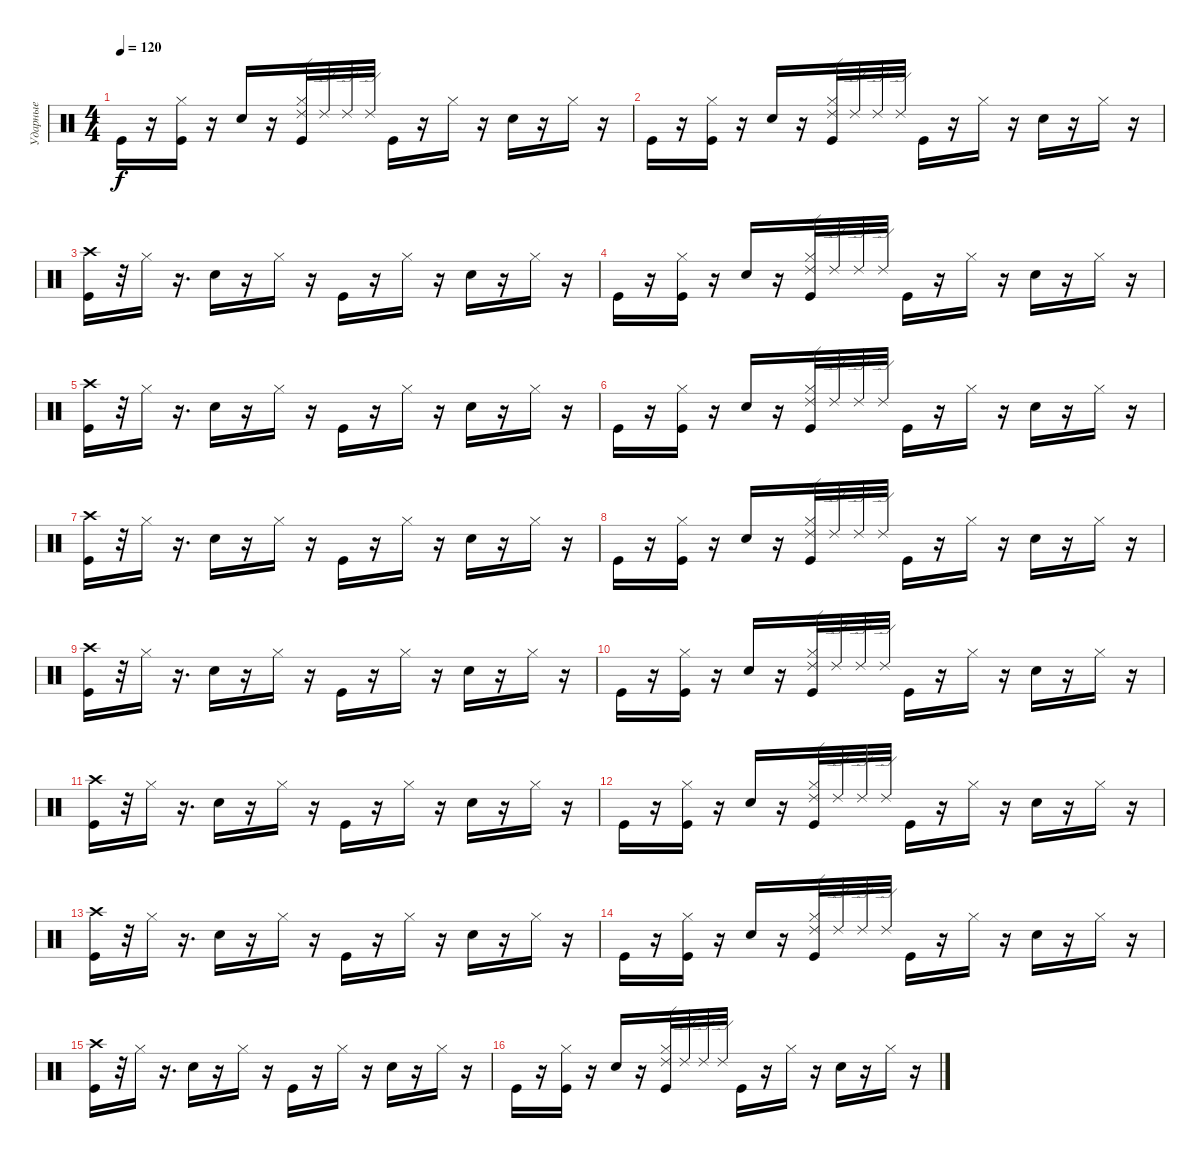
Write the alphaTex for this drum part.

\track ("Ударные" "Ударные") {instrument percussion}
\staff {score}
\articulation defaults
\ts (4 4)
\tempo 120
\clef neutral
\ks c "Kick (hit)".16{dy f}
r.16 ("Hi-Hat (closed)" "Kick (hit)").16 r.16 "Electric Snare (hit)".16 r.16 ("Hi-Hat (closed)" "Kick (hit)" "Ride (edge) 2").32 "Ride (edge) 2".32 "Ride (edge) 2".32 "Ride (edge) 2".32 "Kick (hit)".16 r.16 "Hi-Hat (closed)".16 r.16 "Electric Snare (hit)".16 r.16 "Hi-Hat (closed)".16 r.16 |
"Kick (hit)".16 r.16 ("Hi-Hat (closed)" "Kick (hit)").16 r.16 "Electric Snare (hit)".16 r.16 ("Hi-Hat (closed)" "Kick (hit)" "Ride (edge) 2").32 "Ride (edge) 2".32 "Ride (edge) 2".32 "Ride (edge) 2".32 "Kick (hit)".16 r.16 "Hi-Hat (closed)".16 r.16 "Electric Snare (hit)".16 r.16 "Hi-Hat (closed)".16 r.16 |
("Crash high (hit)" "Kick (hit)").16 r.32 "Hi-Hat (closed)".16 r.16{d} "Electric Snare (hit)".16 r.16 "Hi-Hat (closed)".16 r.16 "Kick (hit)".16 r.16 "Hi-Hat (closed)".16 r.16 "Electric Snare (hit)".16 r.16 "Hi-Hat (closed)".16 r.16 |
"Kick (hit)".16 r.16 ("Hi-Hat (closed)" "Kick (hit)").16 r.16 "Electric Snare (hit)".16 r.16 ("Hi-Hat (closed)" "Kick (hit)" "Ride (edge) 2").32 "Ride (edge) 2".32 "Ride (edge) 2".32 "Ride (edge) 2".32 "Kick (hit)".16 r.16 "Hi-Hat (closed)".16 r.16 "Electric Snare (hit)".16 r.16 "Hi-Hat (closed)".16 r.16 |
("Crash high (hit)" "Kick (hit)").16 r.32 "Hi-Hat (closed)".16 r.16{d} "Electric Snare (hit)".16 r.16 "Hi-Hat (closed)".16 r.16 "Kick (hit)".16 r.16 "Hi-Hat (closed)".16 r.16 "Electric Snare (hit)".16 r.16 "Hi-Hat (closed)".16 r.16 |
"Kick (hit)".16 r.16 ("Hi-Hat (closed)" "Kick (hit)").16 r.16 "Electric Snare (hit)".16 r.16 ("Hi-Hat (closed)" "Kick (hit)" "Ride (edge) 2").32 "Ride (edge) 2".32 "Ride (edge) 2".32 "Ride (edge) 2".32 "Kick (hit)".16 r.16 "Hi-Hat (closed)".16 r.16 "Electric Snare (hit)".16 r.16 "Hi-Hat (closed)".16 r.16 |
("Crash high (hit)" "Kick (hit)").16 r.32 "Hi-Hat (closed)".16 r.16{d} "Electric Snare (hit)".16 r.16 "Hi-Hat (closed)".16 r.16 "Kick (hit)".16 r.16 "Hi-Hat (closed)".16 r.16 "Electric Snare (hit)".16 r.16 "Hi-Hat (closed)".16 r.16 |
"Kick (hit)".16 r.16 ("Hi-Hat (closed)" "Kick (hit)").16 r.16 "Electric Snare (hit)".16 r.16 ("Hi-Hat (closed)" "Kick (hit)" "Ride (edge) 2").32 "Ride (edge) 2".32 "Ride (edge) 2".32 "Ride (edge) 2".32 "Kick (hit)".16 r.16 "Hi-Hat (closed)".16 r.16 "Electric Snare (hit)".16 r.16 "Hi-Hat (closed)".16 r.16 |
("Crash high (hit)" "Kick (hit)").16 r.32 "Hi-Hat (closed)".16 r.16{d} "Electric Snare (hit)".16 r.16 "Hi-Hat (closed)".16 r.16 "Kick (hit)".16 r.16 "Hi-Hat (closed)".16 r.16 "Electric Snare (hit)".16 r.16 "Hi-Hat (closed)".16 r.16 |
"Kick (hit)".16 r.16 ("Hi-Hat (closed)" "Kick (hit)").16 r.16 "Electric Snare (hit)".16 r.16 ("Hi-Hat (closed)" "Kick (hit)" "Ride (edge) 2").32 "Ride (edge) 2".32 "Ride (edge) 2".32 "Ride (edge) 2".32 "Kick (hit)".16 r.16 "Hi-Hat (closed)".16 r.16 "Electric Snare (hit)".16 r.16 "Hi-Hat (closed)".16 r.16 |
("Crash high (hit)" "Kick (hit)").16 r.32 "Hi-Hat (closed)".16 r.16{d} "Electric Snare (hit)".16 r.16 "Hi-Hat (closed)".16 r.16 "Kick (hit)".16 r.16 "Hi-Hat (closed)".16 r.16 "Electric Snare (hit)".16 r.16 "Hi-Hat (closed)".16 r.16 |
"Kick (hit)".16 r.16 ("Hi-Hat (closed)" "Kick (hit)").16 r.16 "Electric Snare (hit)".16 r.16 ("Hi-Hat (closed)" "Kick (hit)" "Ride (edge) 2").32 "Ride (edge) 2".32 "Ride (edge) 2".32 "Ride (edge) 2".32 "Kick (hit)".16 r.16 "Hi-Hat (closed)".16 r.16 "Electric Snare (hit)".16 r.16 "Hi-Hat (closed)".16 r.16 |
("Crash high (hit)" "Kick (hit)").16 r.32 "Hi-Hat (closed)".16 r.16{d} "Electric Snare (hit)".16 r.16 "Hi-Hat (closed)".16 r.16 "Kick (hit)".16 r.16 "Hi-Hat (closed)".16 r.16 "Electric Snare (hit)".16 r.16 "Hi-Hat (closed)".16 r.16 |
"Kick (hit)".16 r.16 ("Hi-Hat (closed)" "Kick (hit)").16 r.16 "Electric Snare (hit)".16 r.16 ("Hi-Hat (closed)" "Kick (hit)" "Ride (edge) 2").32 "Ride (edge) 2".32 "Ride (edge) 2".32 "Ride (edge) 2".32 "Kick (hit)".16 r.16 "Hi-Hat (closed)".16 r.16 "Electric Snare (hit)".16 r.16 "Hi-Hat (closed)".16 r.16 |
("Crash high (hit)" "Kick (hit)").16 r.32 "Hi-Hat (closed)".16 r.16{d} "Electric Snare (hit)".16 r.16 "Hi-Hat (closed)".16 r.16 "Kick (hit)".16 r.16 "Hi-Hat (closed)".16 r.16 "Electric Snare (hit)".16 r.16 "Hi-Hat (closed)".16 r.16 |
"Kick (hit)".16 r.16 ("Hi-Hat (closed)" "Kick (hit)").16 r.16 "Electric Snare (hit)".16 r.16 ("Hi-Hat (closed)" "Kick (hit)" "Ride (edge) 2").32 "Ride (edge) 2".32 "Ride (edge) 2".32 "Ride (edge) 2".32 "Kick (hit)".16 r.16 "Hi-Hat (closed)".16 r.16 "Electric Snare (hit)".16 r.16 "Hi-Hat (closed)".16 r.16
